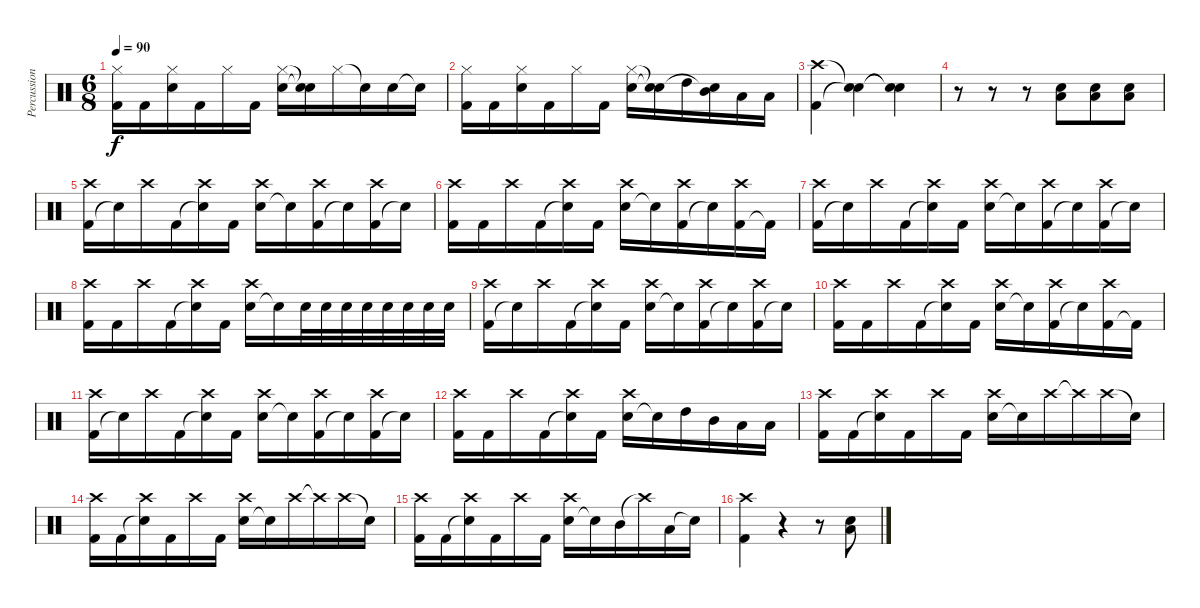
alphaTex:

\track ("Percussions" "Percussion") {instrument percussion}
\staff {score}
\articulation defaults
\ts (6 8)
\tempo 90
\clef neutral
\ks c
("Kick (hit) 2" "Hi-Hat (closed)").16{dy f} "Kick (hit) 2".16 ("Snare (hit) 2" "Hi-Hat (closed)").16 "Kick (hit) 2".16 "Hi-Hat (closed)".16 "Kick (hit) 2".16 ("Snare (hit) 2" "Hi-Hat (closed)").16 ("Snare (hit)"{t} "Snare (hit)"{t}).16 "Hi-Hat (closed)".16 "Snare (hit)"{t}.16 "Snare (hit) 2".16 "Snare (hit)"{t}.16 |
("Kick (hit) 2" "Hi-Hat (closed)").16 "Kick (hit) 2".16 ("Snare (hit) 2" "Hi-Hat (closed)").16 "Kick (hit) 2".16 "Hi-Hat (closed)".16 "Kick (hit) 2".16 ("Snare (hit) 2" "Hi-Hat (closed)").16 ("Snare (hit)"{t} "Snare (hit)"{t}).16 "High Tom (hit)".16 ("Mid Tom (hit)" "Snare (hit)"{t}).16 "Low Tom (hit)".16 "Low Floor Tom (hit)".16 |
("Kick (hit) 2" "Crash high (hit)").4 ("Snare (hit)"{t} "Snare (hit)"{t}).4 ("Snare (hit)"{t} "Snare (hit)"{t}).4 |
r.8 r.8 r.8 ("Snare (hit) 2" "Low Floor Tom (hit)").8 ("Snare (hit) 2" "Low Floor Tom (hit)").8 ("Snare (hit) 2" "Low Floor Tom (hit)").8 |
("Kick (hit) 2" "Crash high (hit)").16 "Snare (hit)"{t}.16 "Crash high (hit)".16 "Kick (hit) 2".16 ("Snare (hit)"{t} "Crash high (hit)").16 "Kick (hit) 2".16 ("Snare (hit) 2" "Crash high (hit)").16 "Snare (hit)"{t}.16 ("Kick (hit) 2" "Crash high (hit)").16 "Snare (hit)"{t}.16 ("Kick (hit) 2" "Crash high (hit)").16 "Snare (hit)"{t}.16 |
("Kick (hit) 2" "Crash high (hit)").16 "Kick (hit) 2".16 "Crash high (hit)".16 "Kick (hit) 2".16 ("Snare (hit)"{t} "Crash high (hit)").16 "Kick (hit) 2".16 ("Snare (hit) 2" "Crash high (hit)").16 "Snare (hit)"{t}.16 ("Kick (hit) 2" "Crash high (hit)").16 "Snare (hit)"{t}.16 ("Kick (hit) 2" "Crash high (hit)").16 "Kick (hit) 2"{t}.16 |
("Kick (hit) 2" "Crash high (hit)").16 "Snare (hit)"{t}.16 "Crash high (hit)".16 "Kick (hit) 2".16 ("Snare (hit)"{t} "Crash high (hit)").16 "Kick (hit) 2".16 ("Snare (hit) 2" "Crash high (hit)").16 "Snare (hit)"{t}.16 ("Kick (hit) 2" "Crash high (hit)").16 "Snare (hit)"{t}.16 ("Kick (hit) 2" "Crash high (hit)").16 "Snare (hit)"{t}.16 |
("Kick (hit) 2" "Crash high (hit)").16 "Kick (hit) 2".16 "Crash high (hit)".16 "Kick (hit) 2".16 ("Snare (hit)"{t} "Crash high (hit)").16 "Kick (hit) 2".16 ("Snare (hit) 2" "Crash high (hit)").16 "Snare (hit)"{t}.16 "Snare (hit) 2".32 "Snare (hit) 2".32 "Snare (hit) 2".32 "Snare (hit) 2".32 "Snare (hit) 2".32 "Snare (hit) 2".32 "Snare (hit) 2".32 "Snare (hit) 2".32 |
("Kick (hit) 2" "Crash high (hit)").16 "Snare (hit)"{t}.16 "Crash high (hit)".16 "Kick (hit) 2".16 ("Snare (hit)"{t} "Crash high (hit)").16 "Kick (hit) 2".16 ("Snare (hit) 2" "Crash high (hit)").16 "Snare (hit)"{t}.16 ("Kick (hit) 2" "Crash high (hit)").16 "Snare (hit)"{t}.16 ("Kick (hit) 2" "Crash high (hit)").16 "Snare (hit)"{t}.16 |
("Kick (hit) 2" "Crash high (hit)").16 "Kick (hit) 2".16 "Crash high (hit)".16 "Kick (hit) 2".16 ("Snare (hit)"{t} "Crash high (hit)").16 "Kick (hit) 2".16 ("Snare (hit) 2" "Crash high (hit)").16 "Snare (hit)"{t}.16 ("Kick (hit) 2" "Crash high (hit)").16 "Snare (hit)"{t}.16 ("Kick (hit) 2" "Crash high (hit)").16 "Kick (hit) 2"{t}.16 |
("Kick (hit) 2" "Crash high (hit)").16 "Snare (hit)"{t}.16 "Crash high (hit)".16 "Kick (hit) 2".16 ("Snare (hit)"{t} "Crash high (hit)").16 "Kick (hit) 2".16 ("Snare (hit) 2" "Crash high (hit)").16 "Snare (hit)"{t}.16 ("Kick (hit) 2" "Crash high (hit)").16 "Snare (hit)"{t}.16 ("Kick (hit) 2" "Crash high (hit)").16 "Snare (hit)"{t}.16 |
("Kick (hit) 2" "Crash high (hit)").16 "Kick (hit) 2".16 "Crash high (hit)".16 "Kick (hit) 2".16 ("Snare (hit)"{t} "Crash high (hit)").16 "Kick (hit) 2".16 ("Snare (hit) 2" "Crash high (hit)").16 "Snare (hit)"{t}.16 "High Tom (hit)".16 "Mid Tom (hit)".16 "Low Tom (hit)".16 "Low Floor Tom (hit)".16 |
("Kick (hit) 2" "Crash high (hit)").16 "Kick (hit) 2".16 ("Snare (hit)"{t} "Crash high (hit)").16 "Kick (hit) 2".16 "Crash high (hit)".16 "Kick (hit) 2".16 ("Snare (hit) 2" "Crash high (hit)").16 "Snare (hit)"{t}.16 "Crash high (hit)".16 "Crash high (hit)"{t}.16 "Crash high (hit)".16 "Snare (hit)"{t}.16 |
("Kick (hit) 2" "Crash high (hit)").16 "Kick (hit) 2".16 ("Snare (hit)"{t} "Crash high (hit)").16 "Kick (hit) 2".16 "Crash high (hit)".16 "Kick (hit) 2".16 ("Snare (hit) 2" "Crash high (hit)").16 "Snare (hit)"{t}.16 "Crash high (hit)".16 "Crash high (hit)"{t}.16 "Crash high (hit)".16 "Snare (hit)"{t}.16 |
("Kick (hit) 2" "Crash high (hit)").16 "Kick (hit) 2".16 ("Snare (hit)"{t} "Crash high (hit)").16 "Kick (hit) 2".16 "Crash high (hit)".16 "Kick (hit) 2".16 ("Snare (hit) 2" "Crash high (hit)").16 "Snare (hit)"{t}.16 "Mid Tom (hit)".16 "Crash high (hit)"{t}.16 "Low Tom (hit)".16 "Snare (hit)"{t}.16 |
("Kick (hit) 2" "Crash high (hit)").4 r.4 r.8 ("Snare (hit) 2" "Low Floor Tom (hit)").8
